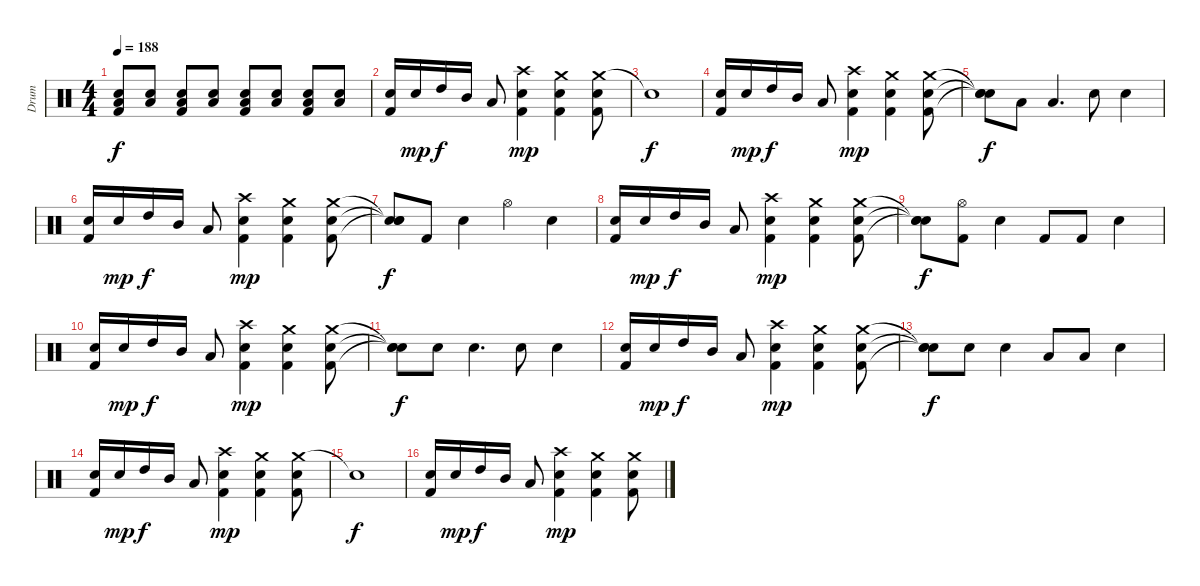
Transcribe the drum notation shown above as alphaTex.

\track ("Drum" "Drum") {instrument percussion}
\staff {score}
\articulation defaults
\ts (4 4)
\tempo 188
\clef neutral
\ks c
("Low Tom (hit)" "Snare (hit) 2" "Kick (hit) 2").8{dy f} ("Low Tom (hit)" "Snare (hit) 2").8 ("Low Tom (hit)" "Snare (hit) 2" "Kick (hit) 2").8 ("Low Tom (hit)" "Snare (hit) 2").8 ("Low Tom (hit)" "Snare (hit) 2" "Kick (hit) 2").8 ("Low Tom (hit)" "Snare (hit) 2").8 ("Low Tom (hit)" "Snare (hit) 2" "Kick (hit) 2").8 ("Low Tom (hit)" "Snare (hit) 2").8 |
("Snare (hit) 2" "Kick (hit) 2").16 "Snare (hit) 2".16{dy mp} "High Tom (hit)".16{dy f} "Mid Tom (hit)".16 "Low Tom (hit)".8 ("Crash high (hit)" "Snare (hit) 2" "Kick (hit) 2").4{dy mp} ("Crash medium (hit)" "Snare (hit) 2" "Kick (hit) 2").4 ("Crash medium (hit)" "Snare (hit) 2" "Kick (hit) 2").8 |
"Snare (hit)"{t}.1{dy f} |
("Snare (hit) 2" "Kick (hit) 2").16 "Snare (hit) 2".16{dy mp} "High Tom (hit)".16{dy f} "Mid Tom (hit)".16 "Low Tom (hit)".8 ("Crash high (hit)" "Snare (hit) 2" "Kick (hit) 2").4{dy mp} ("Crash medium (hit)" "Snare (hit) 2" "Kick (hit) 2").4 ("Crash medium (hit)" "Snare (hit) 2" "Kick (hit) 2").8 |
("Snare (hit)"{t} "Snare (hit)"{t} "Snare (hit)"{t}).8{dy f} "Low Tom (hit)".8 "Low Tom (hit)".4{d} "Snare (hit) 2".8 "Snare (hit) 2".4 |
("Snare (hit) 2" "Kick (hit) 2").16 "Snare (hit) 2".16{dy mp} "High Tom (hit)".16{dy f} "Mid Tom (hit)".16 "Low Tom (hit)".8 ("Crash high (hit)" "Snare (hit) 2" "Kick (hit) 2").4{dy mp} ("Crash medium (hit)" "Snare (hit) 2" "Kick (hit) 2").4 ("Crash medium (hit)" "Snare (hit) 2" "Kick (hit) 2").8 |
("Snare (hit)"{t} "Snare (hit)"{t} "Snare (hit)"{t}).8{dy f} "Kick (hit) 2".8 "Snare (hit) 2".4 "Hi-Hat (open)".4 "Snare (hit) 2".4 |
("Snare (hit) 2" "Kick (hit) 2").16 "Snare (hit) 2".16{dy mp} "High Tom (hit)".16{dy f} "Mid Tom (hit)".16 "Low Tom (hit)".8 ("Crash high (hit)" "Snare (hit) 2" "Kick (hit) 2").4{dy mp} ("Crash medium (hit)" "Snare (hit) 2" "Kick (hit) 2").4 ("Crash medium (hit)" "Snare (hit) 2" "Kick (hit) 2").8 |
("Snare (hit)"{t} "Snare (hit)"{t} "Snare (hit)"{t}).8{dy f} ("Hi-Hat (open)" "Kick (hit) 2").8 "Snare (hit) 2".4 "Kick (hit) 2".8 "Kick (hit) 2".8 "Snare (hit) 2".4 |
("Snare (hit) 2" "Kick (hit) 2").16 "Snare (hit) 2".16{dy mp} "High Tom (hit)".16{dy f} "Mid Tom (hit)".16 "Low Tom (hit)".8 ("Crash high (hit)" "Snare (hit) 2" "Kick (hit) 2").4{dy mp} ("Crash medium (hit)" "Snare (hit) 2" "Kick (hit) 2").4 ("Crash medium (hit)" "Snare (hit) 2" "Kick (hit) 2").8 |
("Snare (hit)"{t} "Snare (hit)"{t} "Snare (hit)"{t}).8{dy f} "Snare (hit) 2".8 "Snare (hit) 2".4{d} "Snare (hit) 2".8 "Snare (hit) 2".4 |
("Snare (hit) 2" "Kick (hit) 2").16 "Snare (hit) 2".16{dy mp} "High Tom (hit)".16{dy f} "Mid Tom (hit)".16 "Low Tom (hit)".8 ("Crash high (hit)" "Snare (hit) 2" "Kick (hit) 2").4{dy mp} ("Crash medium (hit)" "Snare (hit) 2" "Kick (hit) 2").4 ("Crash medium (hit)" "Snare (hit) 2" "Kick (hit) 2").8 |
("Snare (hit)"{t} "Snare (hit)"{t} "Snare (hit)"{t}).8{dy f} "Snare (hit) 2".8 "Snare (hit) 2".4 "Low Tom (hit)".8 "Low Tom (hit)".8 "Snare (hit) 2".4 |
("Snare (hit) 2" "Kick (hit) 2").16 "Snare (hit) 2".16{dy mp} "High Tom (hit)".16{dy f} "Mid Tom (hit)".16 "Low Tom (hit)".8 ("Crash high (hit)" "Snare (hit) 2" "Kick (hit) 2").4{dy mp} ("Crash medium (hit)" "Snare (hit) 2" "Kick (hit) 2").4 ("Crash medium (hit)" "Snare (hit) 2" "Kick (hit) 2").8 |
"Snare (hit)"{t}.1{dy f} |
("Snare (hit) 2" "Kick (hit) 2").16 "Snare (hit) 2".16{dy mp} "High Tom (hit)".16{dy f} "Mid Tom (hit)".16 "Low Tom (hit)".8 ("Crash high (hit)" "Snare (hit) 2" "Kick (hit) 2").4{dy mp} ("Crash medium (hit)" "Snare (hit) 2" "Kick (hit) 2").4 ("Crash medium (hit)" "Snare (hit) 2" "Kick (hit) 2").8
